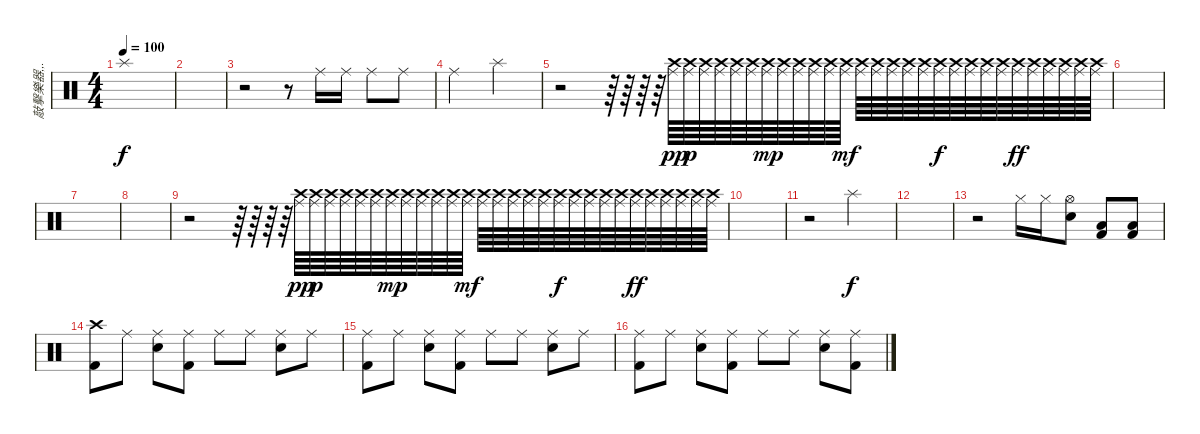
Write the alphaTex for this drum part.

\track ("敲擊樂器,,." "敲擊樂器,,.") {instrument percussion}
\staff {score}
\articulation defaults
\ts (4 4)
\tempo 100
\clef neutral
\ks c "Splash (hit)".1{dy f}
|
|
r.2 r.8 "Ride (middle)".16 "Ride (middle)".16 "Ride (middle)".8 "Ride (middle)".8 |
"Ride (middle)".2 "Splash (hit)".2 |
r.2 r.64 r.64 r.64 r.64 ("Crash high (hit)" "Ride (middle)").64{dy pp} ("Crash high (hit)" "Ride (middle)").64{dy p} ("Crash high (hit)" "Ride (middle)").64 ("Crash high (hit)" "Ride (middle)").64 ("Crash high (hit)" "Ride (middle)").64 ("Crash high (hit)" "Ride (middle)").64 ("Crash high (hit)" "Ride (middle)").64{dy mp} ("Crash high (hit)" "Ride (middle)").64 ("Crash high (hit)" "Ride (middle)").64 ("Crash high (hit)" "Ride (middle)").64 ("Crash high (hit)" "Ride (middle)").64 ("Crash high (hit)" "Ride (middle)").64{dy mf} ("Crash high (hit)" "Ride (middle)").64 ("Crash high (hit)" "Ride (middle)").64 ("Crash high (hit)" "Ride (middle)").64 ("Crash high (hit)" "Ride (middle)").64 ("Crash high (hit)" "Ride (middle)").64 ("Crash high (hit)" "Ride (middle)").64{dy f} ("Crash high (hit)" "Ride (middle)").64 ("Crash high (hit)" "Ride (middle)").64 ("Crash high (hit)" "Ride (middle)").64 ("Crash high (hit)" "Ride (middle)").64 ("Crash high (hit)" "Ride (middle)").64{dy ff} ("Crash high (hit)" "Ride (middle)").64 ("Crash high (hit)" "Ride (middle)").64 ("Crash high (hit)" "Ride (middle)").64 ("Crash high (hit)" "Ride (middle)").64 ("Crash high (hit)" "Ride (middle)").64 |
|
|
|
r.2 r.64 r.64 r.64 r.64 ("Crash high (hit)" "Ride (middle)").64{dy pp} ("Crash high (hit)" "Ride (middle)").64{dy p} ("Crash high (hit)" "Ride (middle)").64 ("Crash high (hit)" "Ride (middle)").64 ("Crash high (hit)" "Ride (middle)").64 ("Crash high (hit)" "Ride (middle)").64 ("Crash high (hit)" "Ride (middle)").64{dy mp} ("Crash high (hit)" "Ride (middle)").64 ("Crash high (hit)" "Ride (middle)").64 ("Crash high (hit)" "Ride (middle)").64 ("Crash high (hit)" "Ride (middle)").64 ("Crash high (hit)" "Ride (middle)").64{dy mf} ("Crash high (hit)" "Ride (middle)").64 ("Crash high (hit)" "Ride (middle)").64 ("Crash high (hit)" "Ride (middle)").64 ("Crash high (hit)" "Ride (middle)").64 ("Crash high (hit)" "Ride (middle)").64 ("Crash high (hit)" "Ride (middle)").64{dy f} ("Crash high (hit)" "Ride (middle)").64 ("Crash high (hit)" "Ride (middle)").64 ("Crash high (hit)" "Ride (middle)").64 ("Crash high (hit)" "Ride (middle)").64 ("Crash high (hit)" "Ride (middle)").64{dy ff} ("Crash high (hit)" "Ride (middle)").64 ("Crash high (hit)" "Ride (middle)").64 ("Crash high (hit)" "Ride (middle)").64 ("Crash high (hit)" "Ride (middle)").64 ("Crash high (hit)" "Ride (middle)").64 |
|
r.2 "Splash (hit)".2{dy f} |
|
r.2 "Hi-Hat (closed)".16 "Hi-Hat (closed)".16 ("Hi-Hat (open)" "Snare (hit) 2").8 ("Low Tom (hit)" "Kick (hit) 2").8 ("Low Tom (hit)" "Kick (hit) 2").8 |
("Crash high (hit)" "Kick (hit) 2").8 "Ride (middle)".8 ("Ride (middle)" "Snare (hit) 2").8 ("Ride (middle)" "Kick (hit) 2").8 "Ride (middle)".8 "Ride (middle)".8 ("Ride (middle)" "Snare (hit) 2").8 "Ride (middle)".8 |
("Ride (middle)" "Kick (hit) 2").8 "Ride (middle)".8 ("Ride (middle)" "Snare (hit) 2").8 ("Ride (middle)" "Kick (hit) 2").8 "Ride (middle)".8 "Ride (middle)".8 ("Ride (middle)" "Snare (hit) 2").8 "Ride (middle)".8 |
("Ride (middle)" "Kick (hit) 2").8 "Ride (middle)".8 ("Ride (middle)" "Snare (hit) 2").8 ("Ride (middle)" "Kick (hit) 2").8 "Ride (middle)".8 "Ride (middle)".8 ("Ride (middle)" "Snare (hit) 2").8 ("Ride (middle)" "Kick (hit) 2").8
